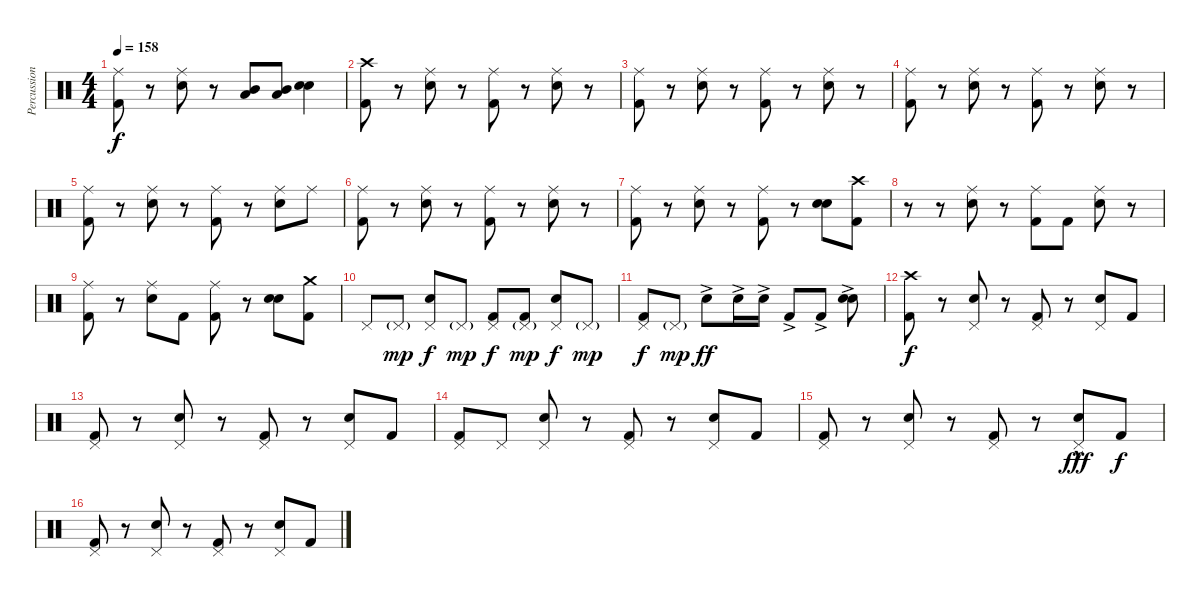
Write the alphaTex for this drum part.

\track ("Percussion" "Percussion") {instrument percussion bank 78}
\staff {score}
\articulation defaults
\ts (4 4)
\tempo 158
\clef neutral
\ks c
("Ride (middle)" "Kick (hit) 2").8{dy f} r.8 ("Ride (middle)" "Electric Snare (hit)").8 r.8 ("Mid Tom (hit)" "Low Tom (hit)").8 ("Mid Tom (hit)" "Low Tom (hit)").8 ("Electric Snare (hit)" "Electric Snare (hit)").4 |
("Crash high (hit)" "Kick (hit) 2").8 r.8 ("Ride (middle)" "Electric Snare (hit)").8 r.8 ("Ride (middle)" "Kick (hit) 2").8 r.8 ("Ride (middle)" "Electric Snare (hit)").8 r.8 |
("Ride (middle)" "Kick (hit) 2").8 r.8 ("Ride (middle)" "Electric Snare (hit)").8 r.8 ("Ride (middle)" "Kick (hit) 2").8 r.8 ("Ride (middle)" "Electric Snare (hit)").8 r.8 |
("Ride (middle)" "Kick (hit) 2").8 r.8 ("Ride (middle)" "Electric Snare (hit)").8 r.8 ("Ride (middle)" "Kick (hit) 2").8 r.8 ("Ride (middle)" "Electric Snare (hit)").8 r.8 |
("Ride (middle)" "Kick (hit) 2").8 r.8 ("Ride (middle)" "Electric Snare (hit)").8 r.8 ("Ride (middle)" "Kick (hit) 2").8 r.8 ("Ride (middle)" "Electric Snare (hit)").8 "Ride (middle)".8 |
("Ride (middle)" "Kick (hit) 2").8 r.8 ("Ride (middle)" "Electric Snare (hit)").8 r.8 ("Ride (middle)" "Kick (hit) 2").8 r.8 ("Ride (middle)" "Electric Snare (hit)").8 r.8 |
("Ride (middle)" "Kick (hit) 2").8 r.8 ("Ride (middle)" "Electric Snare (hit)").8 r.8 ("Ride (middle)" "Kick (hit) 2").8 r.8 ("Electric Snare (hit)" "Electric Snare (hit)").8 ("Crash high (hit)" "Kick (hit) 2").8 |
r.8 r.8 ("Ride (middle)" "Electric Snare (hit)").8 r.8 ("Ride (middle)" "Kick (hit) 2").8 "Kick (hit) 2".8 ("Ride (middle)" "Electric Snare (hit)").8 r.8 |
("Ride (middle)" "Kick (hit) 2").8 r.8 ("Ride (middle)" "Electric Snare (hit)").8 "Kick (hit) 2".8 ("Ride (middle)" "Kick (hit) 2").8 r.8 ("Electric Snare (hit)" "Electric Snare (hit)").8 ("Crash medium (hit)" "Kick (hit) 2").8 |
"Pedal Hi-Hat (hit)".8 "Pedal Hi-Hat (hit)"{g}.8{dy mp} ("Pedal Hi-Hat (hit)" "Electric Snare (hit)").8{dy f} "Pedal Hi-Hat (hit)"{g}.8{dy mp} ("Pedal Hi-Hat (hit)" "Kick (hit) 2").8{dy f} ("Pedal Hi-Hat (hit)"{g} "Kick (hit) 2").8{dy mp} ("Pedal Hi-Hat (hit)" "Electric Snare (hit)").8{dy f} "Pedal Hi-Hat (hit)"{g}.8{dy mp} |
("Pedal Hi-Hat (hit)" "Kick (hit) 2").8{dy f} "Pedal Hi-Hat (hit)"{g}.8{dy mp} "Electric Snare (hit)"{ac}.8{dy ff} "Electric Snare (hit)"{ac}.16 "Electric Snare (hit)"{ac}.16 "Kick (hit) 2"{ac}.8 "Kick (hit) 2"{ac}.8 ("Electric Snare (hit)" "Electric Snare (hit)"{ac}).8 |
("Crash high (hit)" "Kick (hit) 2").8{dy f} r.8 ("Pedal Hi-Hat (hit)" "Electric Snare (hit)").8 r.8 ("Pedal Hi-Hat (hit)" "Kick (hit) 2").8 r.8 ("Pedal Hi-Hat (hit)" "Electric Snare (hit)").8 "Kick (hit) 2".8 |
("Pedal Hi-Hat (hit)" "Kick (hit) 2").8 r.8 ("Pedal Hi-Hat (hit)" "Electric Snare (hit)").8 r.8 ("Pedal Hi-Hat (hit)" "Kick (hit) 2").8 r.8 ("Pedal Hi-Hat (hit)" "Electric Snare (hit)").8 "Kick (hit) 2".8 |
("Pedal Hi-Hat (hit)" "Kick (hit) 2").8 "Pedal Hi-Hat (hit)".8 ("Pedal Hi-Hat (hit)" "Electric Snare (hit)").8 r.8 ("Pedal Hi-Hat (hit)" "Kick (hit) 2").8 r.8 ("Pedal Hi-Hat (hit)" "Electric Snare (hit)").8 "Kick (hit) 2".8 |
("Pedal Hi-Hat (hit)" "Kick (hit) 2").8 r.8 ("Pedal Hi-Hat (hit)" "Electric Snare (hit)").8 r.8 ("Pedal Hi-Hat (hit)" "Kick (hit) 2").8 r.8 ("Pedal Hi-Hat (hit)"{hac} "Electric Snare (hit)").8{dy fff} "Kick (hit) 2".8{dy f} |
("Pedal Hi-Hat (hit)" "Kick (hit) 2").8 r.8 ("Pedal Hi-Hat (hit)" "Electric Snare (hit)").8 r.8 ("Pedal Hi-Hat (hit)" "Kick (hit) 2").8 r.8 ("Pedal Hi-Hat (hit)" "Electric Snare (hit)").8 "Kick (hit) 2".8
